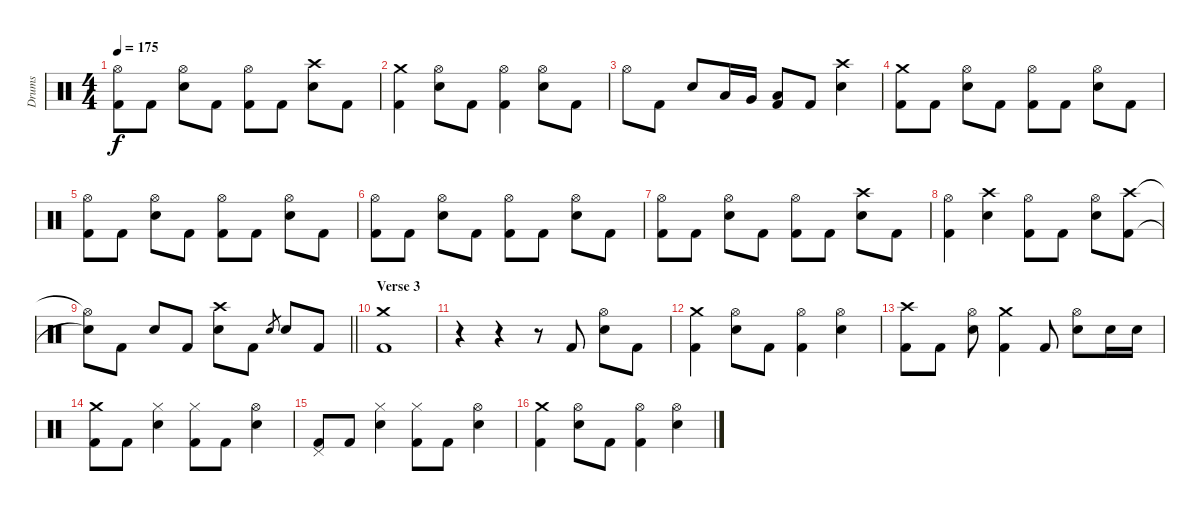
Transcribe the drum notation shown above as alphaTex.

\track ("Drums" "Drums") {instrument percussion}
\staff {score}
\articulation defaults
\ts (4 4)
\tempo 175
\clef neutral
\ks c
("Hi-Hat (open)" "Kick (hit) 2").8{dy f} "Kick (hit) 2".8 ("Hi-Hat (open)" "Electric Snare (hit)").8 "Kick (hit) 2".8 ("Hi-Hat (open)" "Kick (hit) 2").8 "Kick (hit) 2".8 ("Crash high (hit)" "Electric Snare (hit)").8 "Kick (hit) 2".8 |
("Crash medium (hit)" "Kick (hit) 2").4 ("Hi-Hat (open)" "Electric Snare (hit)").8 "Kick (hit) 2".8 ("Hi-Hat (open)" "Kick (hit) 2").4 ("Hi-Hat (open)" "Electric Snare (hit)").8 "Kick (hit) 2".8 |
"Hi-Hat (open)".8 "Kick (hit) 2".8 "Electric Snare (hit)".8 "Low Tom (hit)".16 "Very Low Tom (hit)".16 ("Low Floor Tom (hit)" "Kick (hit) 2").8 "Kick (hit) 2".8 ("Crash high (hit)" "Electric Snare (hit)").4 |
("Crash medium (hit)" "Kick (hit) 2").8 "Kick (hit) 2".8 ("Hi-Hat (open)" "Electric Snare (hit)").8 "Kick (hit) 2".8 ("Hi-Hat (open)" "Kick (hit) 2").8 "Kick (hit) 2".8 ("Hi-Hat (open)" "Electric Snare (hit)").8 "Kick (hit) 2".8 |
("Hi-Hat (open)" "Kick (hit) 2").8 "Kick (hit) 2".8 ("Hi-Hat (open)" "Electric Snare (hit)").8 "Kick (hit) 2".8 ("Hi-Hat (open)" "Kick (hit) 2").8 "Kick (hit) 2".8 ("Hi-Hat (open)" "Electric Snare (hit)").8 "Kick (hit) 2".8 |
("Hi-Hat (open)" "Kick (hit) 2").8 "Kick (hit) 2".8 ("Hi-Hat (open)" "Electric Snare (hit)").8 "Kick (hit) 2".8 ("Hi-Hat (open)" "Kick (hit) 2").8 "Kick (hit) 2".8 ("Hi-Hat (open)" "Electric Snare (hit)").8 "Kick (hit) 2".8 |
("Hi-Hat (open)" "Kick (hit) 2").8 "Kick (hit) 2".8 ("Hi-Hat (open)" "Electric Snare (hit)").8 "Kick (hit) 2".8 ("Hi-Hat (open)" "Kick (hit) 2").8 "Kick (hit) 2".8 ("Crash high (hit)" "Electric Snare (hit)").8 "Kick (hit) 2".8 |
("Hi-Hat (open)" "Kick (hit) 2").4 ("Crash high (hit)" "Electric Snare (hit)").4 ("Hi-Hat (open)" "Kick (hit) 2").8 "Kick (hit) 2".8 ("Hi-Hat (open)" "Electric Snare (hit)").8 ("Crash high (hit)" "Kick (hit) 2").8 |
\barLineRight lightlight
("Hi-Hat (open)"{t} "Snare (hit)"{t}).8 "Kick (hit) 2".8 "Electric Snare (hit)".8 "Kick (hit) 2".8 ("Crash high (hit)" "Electric Snare (hit)").8 "Kick (hit) 2".8 "Electric Snare (hit)".8{gr} "Electric Snare (hit)".8 "Kick (hit) 2".8 |
\section ("" "Verse 3")
("Crash medium (hit)" "Kick (hit) 2").1 |
r.4 r.4 r.8 "Kick (hit) 2".8 ("Hi-Hat (open)" "Electric Snare (hit)").8 "Kick (hit) 2".8 |
("Crash medium (hit)" "Kick (hit) 2").4 ("Hi-Hat (open)" "Electric Snare (hit)").8 "Kick (hit) 2".8 ("Hi-Hat (open)" "Kick (hit) 2").4 ("Hi-Hat (open)" "Electric Snare (hit)").4 |
("Crash high (hit)" "Kick (hit) 2").8 "Kick (hit) 2".8 ("Hi-Hat (open)" "Electric Snare (hit)").8 ("Crash medium (hit)" "Kick (hit) 2").4 "Kick (hit) 2".8 ("Hi-Hat (open)" "Electric Snare (hit)").8 "Electric Snare (hit)".16 "Electric Snare (hit)".16 |
("Crash medium (hit)" "Kick (hit) 2").8 "Kick (hit) 2".8 ("Hi-Hat (closed)" "Electric Snare (hit)").4 ("Hi-Hat (closed)" "Kick (hit) 2").8 "Kick (hit) 2".8 ("Hi-Hat (open)" "Electric Snare (hit)").4 |
("Pedal Hi-Hat (hit)" "Kick (hit) 2").8 "Kick (hit) 2".8 ("Hi-Hat (closed)" "Electric Snare (hit)").4 ("Hi-Hat (closed)" "Kick (hit) 2").8 "Kick (hit) 2".8 ("Hi-Hat (open)" "Electric Snare (hit)").4 |
("Crash medium (hit)" "Kick (hit) 2").4 ("Hi-Hat (open)" "Electric Snare (hit)").8 "Kick (hit) 2".8 ("Hi-Hat (open)" "Kick (hit) 2").4 ("Hi-Hat (open)" "Electric Snare (hit)").4
